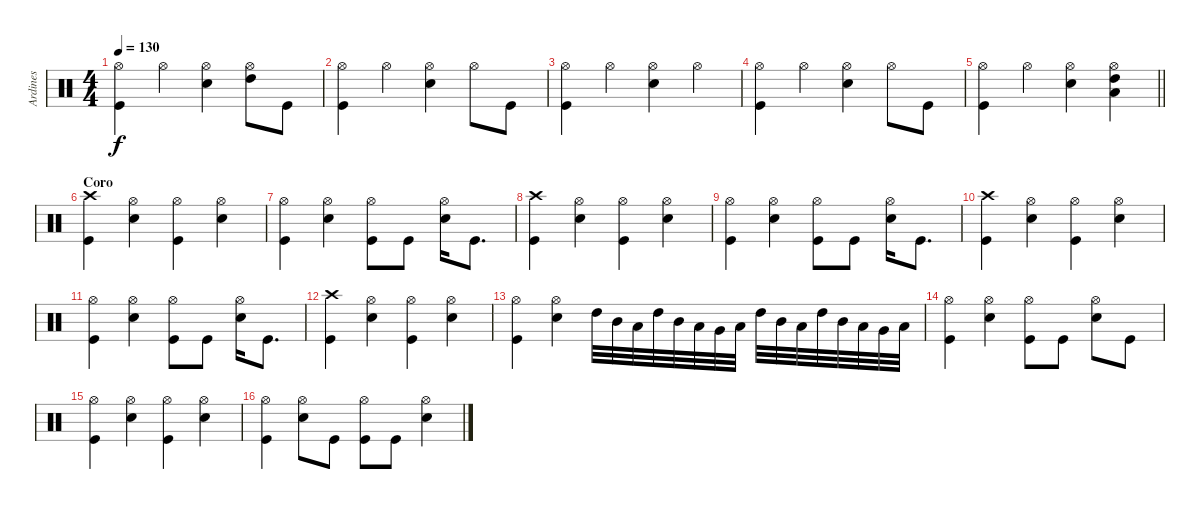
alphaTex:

\track ("Ardines" "Ardines") {instrument percussion}
\staff {score}
\articulation defaults
\ts (4 4)
\tempo 130
\clef neutral
\ks c
("Hi-Hat (open)" "Kick (hit)").4{dy f} "Hi-Hat (open)".4 ("Hi-Hat (open)" "Electric Snare (hit)").4 ("Hi-Hat (open)" "High Tom (hit)").8 "Kick (hit)".8 |
("Hi-Hat (open)" "Kick (hit)").4 "Hi-Hat (open)".4 ("Hi-Hat (open)" "Electric Snare (hit)").4 "Hi-Hat (open)".8 "Kick (hit)".8 |
("Hi-Hat (open)" "Kick (hit)").4 "Hi-Hat (open)".4 ("Hi-Hat (open)" "Electric Snare (hit)").4 "Hi-Hat (open)".4 |
("Hi-Hat (open)" "Kick (hit)").4 "Hi-Hat (open)".4 ("Hi-Hat (open)" "Electric Snare (hit)").4 "Hi-Hat (open)".8 "Kick (hit)".8 |
\barLineRight lightlight
("Hi-Hat (open)" "Kick (hit)").4 "Hi-Hat (open)".4 ("Hi-Hat (open)" "Electric Snare (hit)").4 ("Hi-Hat (open)" "High Tom (hit)" "Low Tom (hit)").4 |
\section ("" "Coro")
("Crash high (hit)" "Kick (hit)").4 ("Hi-Hat (open)" "Electric Snare (hit)").4 ("Hi-Hat (open)" "Kick (hit)").4 ("Hi-Hat (open)" "Electric Snare (hit)").4 |
("Hi-Hat (open)" "Kick (hit)").4 ("Hi-Hat (open)" "Electric Snare (hit)").4 ("Hi-Hat (open)" "Kick (hit)").8 "Kick (hit)".8 ("Hi-Hat (open)" "Electric Snare (hit)").16 "Kick (hit)".8{d} |
("Crash high (hit)" "Kick (hit)").4 ("Hi-Hat (open)" "Electric Snare (hit)").4 ("Hi-Hat (open)" "Kick (hit)").4 ("Hi-Hat (open)" "Electric Snare (hit)").4 |
("Hi-Hat (open)" "Kick (hit)").4 ("Hi-Hat (open)" "Electric Snare (hit)").4 ("Hi-Hat (open)" "Kick (hit)").8 "Kick (hit)".8 ("Hi-Hat (open)" "Electric Snare (hit)").16 "Kick (hit)".8{d} |
("Crash high (hit)" "Kick (hit)").4 ("Hi-Hat (open)" "Electric Snare (hit)").4 ("Hi-Hat (open)" "Kick (hit)").4 ("Hi-Hat (open)" "Electric Snare (hit)").4 |
("Hi-Hat (open)" "Kick (hit)").4 ("Hi-Hat (open)" "Electric Snare (hit)").4 ("Hi-Hat (open)" "Kick (hit)").8 "Kick (hit)".8 ("Hi-Hat (open)" "Electric Snare (hit)").16 "Kick (hit)".8{d} |
("Crash high (hit)" "Kick (hit)").4 ("Hi-Hat (open)" "Electric Snare (hit)").4 ("Hi-Hat (open)" "Kick (hit)").4 ("Hi-Hat (open)" "Electric Snare (hit)").4 |
("Hi-Hat (open)" "Kick (hit)").4 ("Hi-Hat (open)" "Electric Snare (hit)").4 "High Tom (hit)".32 "Mid Tom (hit)".32 "Low Tom (hit)".32 "High Tom (hit)".32 "Mid Tom (hit)".32 "Low Tom (hit)".32 "Very Low Tom (hit)".32 "Low Tom (hit)".32 "High Tom (hit)".32 "Mid Tom (hit)".32 "Low Tom (hit)".32 "High Tom (hit)".32 "Mid Tom (hit)".32 "Low Tom (hit)".32 "Very Low Tom (hit)".32 "Low Tom (hit)".32 |
("Hi-Hat (open)" "Kick (hit)").4 ("Hi-Hat (open)" "Electric Snare (hit)").4 ("Hi-Hat (open)" "Kick (hit)").8 "Kick (hit)".8 ("Hi-Hat (open)" "Electric Snare (hit)").8 "Kick (hit)".8 |
("Hi-Hat (open)" "Kick (hit)").4 ("Hi-Hat (open)" "Electric Snare (hit)").4 ("Hi-Hat (open)" "Kick (hit)").4 ("Hi-Hat (open)" "Electric Snare (hit)").4 |
("Hi-Hat (open)" "Kick (hit)").4 ("Hi-Hat (open)" "Electric Snare (hit)").8 "Kick (hit)".8 ("Hi-Hat (open)" "Kick (hit)").8 "Kick (hit)".8 ("Hi-Hat (open)" "Electric Snare (hit)").4
